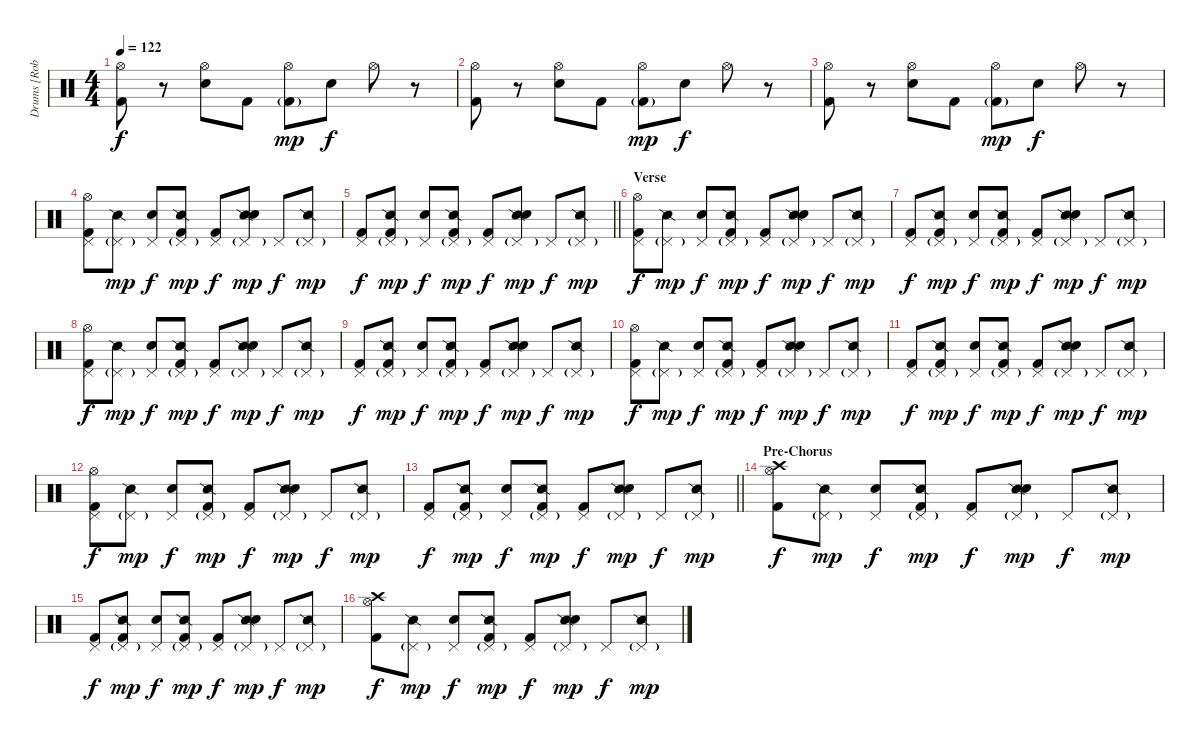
\track ("Drums [Rob Bourdon]" "Drums [Rob") {solo instrument percussion}
\staff {score}
\articulation defaults
\ts (4 4)
\tempo 122
\clef neutral
\ks c
("Hi-Hat (open)" "Kick (hit) 2").8{dy f} r.8 ("Hi-Hat (open)" "Electric Snare (hit)").8 "Kick (hit) 2".8 ("Hi-Hat (open)" "Kick (hit) 2"{g}).8{dy mp} "Electric Snare (hit)".8{dy f} "Hi-Hat (open)".8 r.8 |
("Hi-Hat (open)" "Kick (hit) 2").8 r.8 ("Hi-Hat (open)" "Electric Snare (hit)").8 "Kick (hit) 2".8 ("Hi-Hat (open)" "Kick (hit) 2"{g}).8{dy mp} "Electric Snare (hit)".8{dy f} "Hi-Hat (open)".8 r.8 |
("Hi-Hat (open)" "Kick (hit) 2").8 r.8 ("Hi-Hat (open)" "Electric Snare (hit)").8 "Kick (hit) 2".8 ("Hi-Hat (open)" "Kick (hit) 2"{g}).8{dy mp} "Electric Snare (hit)".8{dy f} "Hi-Hat (open)".8 r.8 |
("Pedal Hi-Hat (hit)" "Hi-Hat (open)" "Kick (hit) 2").8 ("Snare (side stick) 2" "Pedal Hi-Hat (hit)"{g}).8{dy mp} ("Pedal Hi-Hat (hit)" "Electric Snare (hit)").8{dy f} ("Snare (side stick) 2" "Pedal Hi-Hat (hit)"{g} "Kick (hit) 2").8{dy mp} ("Pedal Hi-Hat (hit)" "Kick (hit) 2").8{dy f} ("Snare (side stick) 2" "Pedal Hi-Hat (hit)"{g} "Electric Snare (hit)").8{dy mp} "Pedal Hi-Hat (hit)".8{dy f} ("Snare (side stick) 2" "Pedal Hi-Hat (hit)"{g}).8{dy mp} |
\barLineRight lightlight
("Pedal Hi-Hat (hit)" "Kick (hit) 2").8{dy f} ("Snare (side stick) 2" "Pedal Hi-Hat (hit)"{g} "Kick (hit) 2").8{dy mp} ("Pedal Hi-Hat (hit)" "Electric Snare (hit)").8{dy f} ("Snare (side stick) 2" "Pedal Hi-Hat (hit)"{g} "Kick (hit) 2").8{dy mp} ("Pedal Hi-Hat (hit)" "Kick (hit) 2").8{dy f} ("Snare (side stick) 2" "Pedal Hi-Hat (hit)"{g} "Electric Snare (hit)").8{dy mp} "Pedal Hi-Hat (hit)".8{dy f} ("Snare (side stick) 2" "Pedal Hi-Hat (hit)"{g}).8{dy mp} |
\section ("" "Verse")
("Pedal Hi-Hat (hit)" "Hi-Hat (open)" "Kick (hit) 2").8{dy f} ("Snare (side stick) 2" "Pedal Hi-Hat (hit)"{g}).8{dy mp} ("Pedal Hi-Hat (hit)" "Electric Snare (hit)").8{dy f} ("Snare (side stick) 2" "Pedal Hi-Hat (hit)"{g} "Kick (hit) 2").8{dy mp} ("Pedal Hi-Hat (hit)" "Kick (hit) 2").8{dy f} ("Snare (side stick) 2" "Pedal Hi-Hat (hit)"{g} "Electric Snare (hit)").8{dy mp} "Pedal Hi-Hat (hit)".8{dy f} ("Snare (side stick) 2" "Pedal Hi-Hat (hit)"{g}).8{dy mp} |
("Pedal Hi-Hat (hit)" "Kick (hit) 2").8{dy f} ("Snare (side stick) 2" "Pedal Hi-Hat (hit)"{g} "Kick (hit) 2").8{dy mp} ("Pedal Hi-Hat (hit)" "Electric Snare (hit)").8{dy f} ("Snare (side stick) 2" "Pedal Hi-Hat (hit)"{g} "Kick (hit) 2").8{dy mp} ("Pedal Hi-Hat (hit)" "Kick (hit) 2").8{dy f} ("Snare (side stick) 2" "Pedal Hi-Hat (hit)"{g} "Electric Snare (hit)").8{dy mp} "Pedal Hi-Hat (hit)".8{dy f} ("Snare (side stick) 2" "Pedal Hi-Hat (hit)"{g}).8{dy mp} |
("Pedal Hi-Hat (hit)" "Hi-Hat (open)" "Kick (hit) 2").8{dy f} ("Snare (side stick) 2" "Pedal Hi-Hat (hit)"{g}).8{dy mp} ("Pedal Hi-Hat (hit)" "Electric Snare (hit)").8{dy f} ("Snare (side stick) 2" "Pedal Hi-Hat (hit)"{g} "Kick (hit) 2").8{dy mp} ("Pedal Hi-Hat (hit)" "Kick (hit) 2").8{dy f} ("Snare (side stick) 2" "Pedal Hi-Hat (hit)"{g} "Electric Snare (hit)").8{dy mp} "Pedal Hi-Hat (hit)".8{dy f} ("Snare (side stick) 2" "Pedal Hi-Hat (hit)"{g}).8{dy mp} |
("Pedal Hi-Hat (hit)" "Kick (hit) 2").8{dy f} ("Snare (side stick) 2" "Pedal Hi-Hat (hit)"{g} "Kick (hit) 2").8{dy mp} ("Pedal Hi-Hat (hit)" "Electric Snare (hit)").8{dy f} ("Snare (side stick) 2" "Pedal Hi-Hat (hit)"{g} "Kick (hit) 2").8{dy mp} ("Pedal Hi-Hat (hit)" "Kick (hit) 2").8{dy f} ("Snare (side stick) 2" "Pedal Hi-Hat (hit)"{g} "Electric Snare (hit)").8{dy mp} "Pedal Hi-Hat (hit)".8{dy f} ("Snare (side stick) 2" "Pedal Hi-Hat (hit)"{g}).8{dy mp} |
("Pedal Hi-Hat (hit)" "Hi-Hat (open)" "Kick (hit) 2").8{dy f} ("Snare (side stick) 2" "Pedal Hi-Hat (hit)"{g}).8{dy mp} ("Pedal Hi-Hat (hit)" "Electric Snare (hit)").8{dy f} ("Snare (side stick) 2" "Pedal Hi-Hat (hit)"{g} "Kick (hit) 2").8{dy mp} ("Pedal Hi-Hat (hit)" "Kick (hit) 2").8{dy f} ("Snare (side stick) 2" "Pedal Hi-Hat (hit)"{g} "Electric Snare (hit)").8{dy mp} "Pedal Hi-Hat (hit)".8{dy f} ("Snare (side stick) 2" "Pedal Hi-Hat (hit)"{g}).8{dy mp} |
("Pedal Hi-Hat (hit)" "Kick (hit) 2").8{dy f} ("Snare (side stick) 2" "Pedal Hi-Hat (hit)"{g} "Kick (hit) 2").8{dy mp} ("Pedal Hi-Hat (hit)" "Electric Snare (hit)").8{dy f} ("Snare (side stick) 2" "Pedal Hi-Hat (hit)"{g} "Kick (hit) 2").8{dy mp} ("Pedal Hi-Hat (hit)" "Kick (hit) 2").8{dy f} ("Snare (side stick) 2" "Pedal Hi-Hat (hit)"{g} "Electric Snare (hit)").8{dy mp} "Pedal Hi-Hat (hit)".8{dy f} ("Snare (side stick) 2" "Pedal Hi-Hat (hit)"{g}).8{dy mp} |
("Pedal Hi-Hat (hit)" "Hi-Hat (open)" "Kick (hit) 2").8{dy f} ("Snare (side stick) 2" "Pedal Hi-Hat (hit)"{g}).8{dy mp} ("Pedal Hi-Hat (hit)" "Electric Snare (hit)").8{dy f} ("Snare (side stick) 2" "Pedal Hi-Hat (hit)"{g} "Kick (hit) 2").8{dy mp} ("Pedal Hi-Hat (hit)" "Kick (hit) 2").8{dy f} ("Snare (side stick) 2" "Pedal Hi-Hat (hit)"{g} "Electric Snare (hit)").8{dy mp} "Pedal Hi-Hat (hit)".8{dy f} ("Snare (side stick) 2" "Pedal Hi-Hat (hit)"{g}).8{dy mp} |
\barLineRight lightlight
("Pedal Hi-Hat (hit)" "Kick (hit) 2").8{dy f} ("Snare (side stick) 2" "Pedal Hi-Hat (hit)"{g} "Kick (hit) 2").8{dy mp} ("Pedal Hi-Hat (hit)" "Electric Snare (hit)").8{dy f} ("Snare (side stick) 2" "Pedal Hi-Hat (hit)"{g} "Kick (hit) 2").8{dy mp} ("Pedal Hi-Hat (hit)" "Kick (hit) 2").8{dy f} ("Snare (side stick) 2" "Pedal Hi-Hat (hit)"{g} "Electric Snare (hit)").8{dy mp} "Pedal Hi-Hat (hit)".8{dy f} ("Snare (side stick) 2" "Pedal Hi-Hat (hit)"{g}).8{dy mp} |
\section ("" "Pre-Chorus")
("Crash high (hit)" "Hi-Hat (open)" "Kick (hit) 2").8{dy f} ("Snare (side stick) 2" "Pedal Hi-Hat (hit)"{g}).8{dy mp} ("Pedal Hi-Hat (hit)" "Electric Snare (hit)").8{dy f} ("Snare (side stick) 2" "Pedal Hi-Hat (hit)"{g} "Kick (hit) 2").8{dy mp} ("Pedal Hi-Hat (hit)" "Kick (hit) 2").8{dy f} ("Snare (side stick) 2" "Pedal Hi-Hat (hit)"{g} "Electric Snare (hit)").8{dy mp} "Pedal Hi-Hat (hit)".8{dy f} ("Snare (side stick) 2" "Pedal Hi-Hat (hit)"{g}).8{dy mp} |
("Pedal Hi-Hat (hit)" "Kick (hit) 2").8{dy f} ("Snare (side stick) 2" "Pedal Hi-Hat (hit)"{g} "Kick (hit) 2").8{dy mp} ("Pedal Hi-Hat (hit)" "Electric Snare (hit)").8{dy f} ("Snare (side stick) 2" "Pedal Hi-Hat (hit)"{g} "Kick (hit) 2").8{dy mp} ("Pedal Hi-Hat (hit)" "Kick (hit) 2").8{dy f} ("Snare (side stick) 2" "Pedal Hi-Hat (hit)"{g} "Electric Snare (hit)").8{dy mp} "Pedal Hi-Hat (hit)".8{dy f} ("Snare (side stick) 2" "Pedal Hi-Hat (hit)"{g}).8{dy mp} |
("Crash high (hit)" "Hi-Hat (open)" "Kick (hit) 2").8{dy f} ("Snare (side stick) 2" "Pedal Hi-Hat (hit)"{g}).8{dy mp} ("Pedal Hi-Hat (hit)" "Electric Snare (hit)").8{dy f} ("Snare (side stick) 2" "Pedal Hi-Hat (hit)"{g} "Kick (hit) 2").8{dy mp} ("Pedal Hi-Hat (hit)" "Kick (hit) 2").8{dy f} ("Snare (side stick) 2" "Pedal Hi-Hat (hit)"{g} "Electric Snare (hit)").8{dy mp} "Pedal Hi-Hat (hit)".8{dy f} ("Snare (side stick) 2" "Pedal Hi-Hat (hit)"{g}).8{dy mp}
